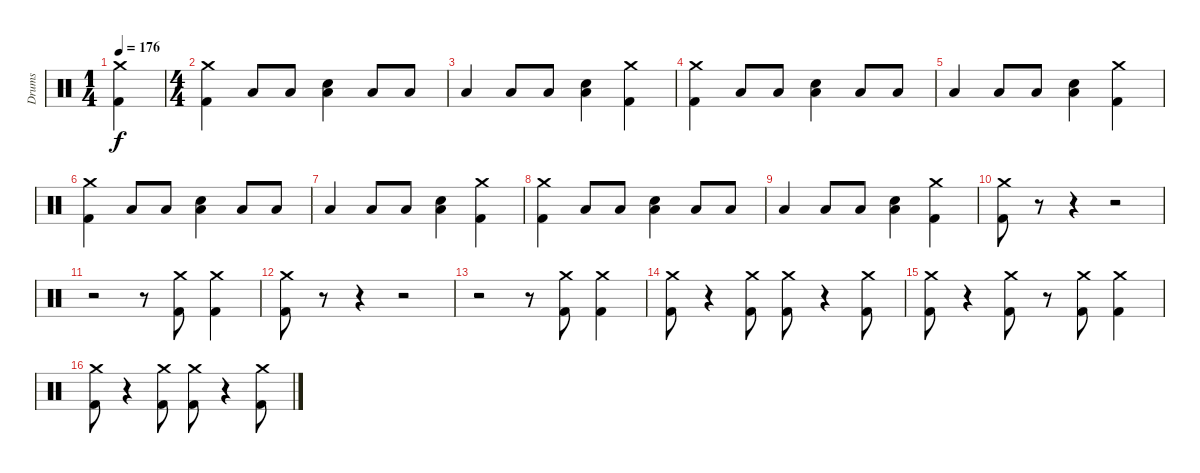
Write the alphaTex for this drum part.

\track ("Drums" "Drums") {instrument percussion}
\staff {score}
\articulation defaults
\ts (1 4)
\tempo 176
\clef neutral
\ks c
("Crash medium (hit)" "Kick (hit) 2").4{dy f} |
\ts (4 4)
("Crash medium (hit)" "Kick (hit) 2").4 "Low Tom (hit)".8 "Low Tom (hit)".8 ("Snare (hit) 2" "Low Tom (hit)").4 "Low Tom (hit)".8 "Low Tom (hit)".8 |
"Low Tom (hit)".4 "Low Tom (hit)".8 "Low Tom (hit)".8 ("Snare (hit) 2" "Low Tom (hit)").4 ("Crash medium (hit)" "Kick (hit) 2").4 |
("Crash medium (hit)" "Kick (hit) 2").4 "Low Tom (hit)".8 "Low Tom (hit)".8 ("Snare (hit) 2" "Low Tom (hit)").4 "Low Tom (hit)".8 "Low Tom (hit)".8 |
"Low Tom (hit)".4 "Low Tom (hit)".8 "Low Tom (hit)".8 ("Snare (hit) 2" "Low Tom (hit)").4 ("Crash medium (hit)" "Kick (hit) 2").4 |
("Crash medium (hit)" "Kick (hit) 2").4 "Low Tom (hit)".8 "Low Tom (hit)".8 ("Snare (hit) 2" "Low Tom (hit)").4 "Low Tom (hit)".8 "Low Tom (hit)".8 |
"Low Tom (hit)".4 "Low Tom (hit)".8 "Low Tom (hit)".8 ("Snare (hit) 2" "Low Tom (hit)").4 ("Crash medium (hit)" "Kick (hit) 2").4 |
("Crash medium (hit)" "Kick (hit) 2").4 "Low Tom (hit)".8 "Low Tom (hit)".8 ("Snare (hit) 2" "Low Tom (hit)").4 "Low Tom (hit)".8 "Low Tom (hit)".8 |
"Low Tom (hit)".4 "Low Tom (hit)".8 "Low Tom (hit)".8 ("Snare (hit) 2" "Low Tom (hit)").4 ("Crash medium (hit)" "Kick (hit) 2").4 |
("Crash medium (hit)" "Kick (hit) 2").8 r.8 r.4 r.2 |
r.2 r.8 ("Crash medium (hit)" "Kick (hit) 2").8 ("Crash medium (hit)" "Kick (hit) 2").4 |
("Crash medium (hit)" "Kick (hit) 2").8 r.8 r.4 r.2 |
r.2 r.8 ("Crash medium (hit)" "Kick (hit) 2").8 ("Crash medium (hit)" "Kick (hit) 2").4 |
("Crash medium (hit)" "Kick (hit) 2").8 r.4 ("Crash medium (hit)" "Kick (hit) 2").8 ("Crash medium (hit)" "Kick (hit) 2").8 r.4 ("Crash medium (hit)" "Kick (hit) 2").8 |
("Crash medium (hit)" "Kick (hit) 2").8 r.4 ("Crash medium (hit)" "Kick (hit) 2").8 r.8 ("Crash medium (hit)" "Kick (hit) 2").8 ("Crash medium (hit)" "Kick (hit) 2").4 |
("Crash medium (hit)" "Kick (hit) 2").8 r.4 ("Crash medium (hit)" "Kick (hit) 2").8 ("Crash medium (hit)" "Kick (hit) 2").8 r.4 ("Crash medium (hit)" "Kick (hit) 2").8
